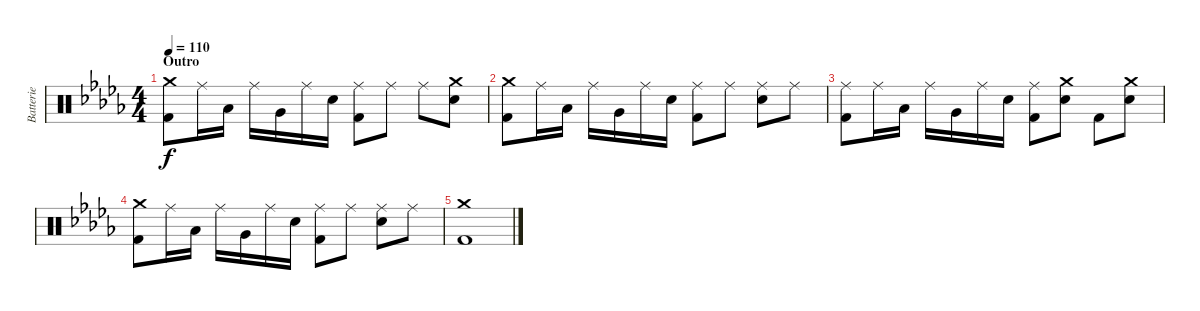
\track ("Batterie" "Batterie") {instrument percussion}
\staff {score}
\articulation defaults
\ts (4 4)
\section ("" "Outro")
\tempo 110
\clef neutral
\ks bbminor
("Crash medium (hit)" "Kick (hit) 2").8{dy f} "Ride (middle)".16 "Low Tom (hit)".16 "Ride (middle)".16 "Very Low Tom (hit)".16 "Ride (middle)".16 "Electric Snare (hit)".16 ("Ride (middle)" "Kick (hit) 2").8 "Ride (middle)".8 "Ride (middle)".8 ("Crash medium (hit)" "Electric Snare (hit)").8 |
("Crash medium (hit)" "Kick (hit) 2").8 "Ride (middle)".16 "Low Tom (hit)".16 "Ride (middle)".16 "Very Low Tom (hit)".16 "Ride (middle)".16 "Electric Snare (hit)".16 ("Ride (middle)" "Kick (hit) 2").8 "Ride (middle)".8 ("Ride (middle)" "Electric Snare (hit)").8 "Ride (middle)".8 |
("Ride (middle)" "Kick (hit) 2").8 "Ride (middle)".16 "Low Tom (hit)".16 "Ride (middle)".16 "Very Low Tom (hit)".16 "Ride (middle)".16 "Electric Snare (hit)".16 ("Ride (middle)" "Kick (hit) 2").8 ("Crash medium (hit)" "Electric Snare (hit)").8 "Kick (hit) 2".8 ("Crash medium (hit)" "Electric Snare (hit)").8 |
("Crash medium (hit)" "Kick (hit) 2").8 "Ride (middle)".16 "Low Tom (hit)".16 "Ride (middle)".16 "Very Low Tom (hit)".16 "Ride (middle)".16 "Electric Snare (hit)".16 ("Ride (middle)" "Kick (hit) 2").8 "Ride (middle)".8 ("Ride (middle)" "Electric Snare (hit)").8 "Ride (middle)".8 |
("Crash medium (hit)" "Kick (hit) 2").1
